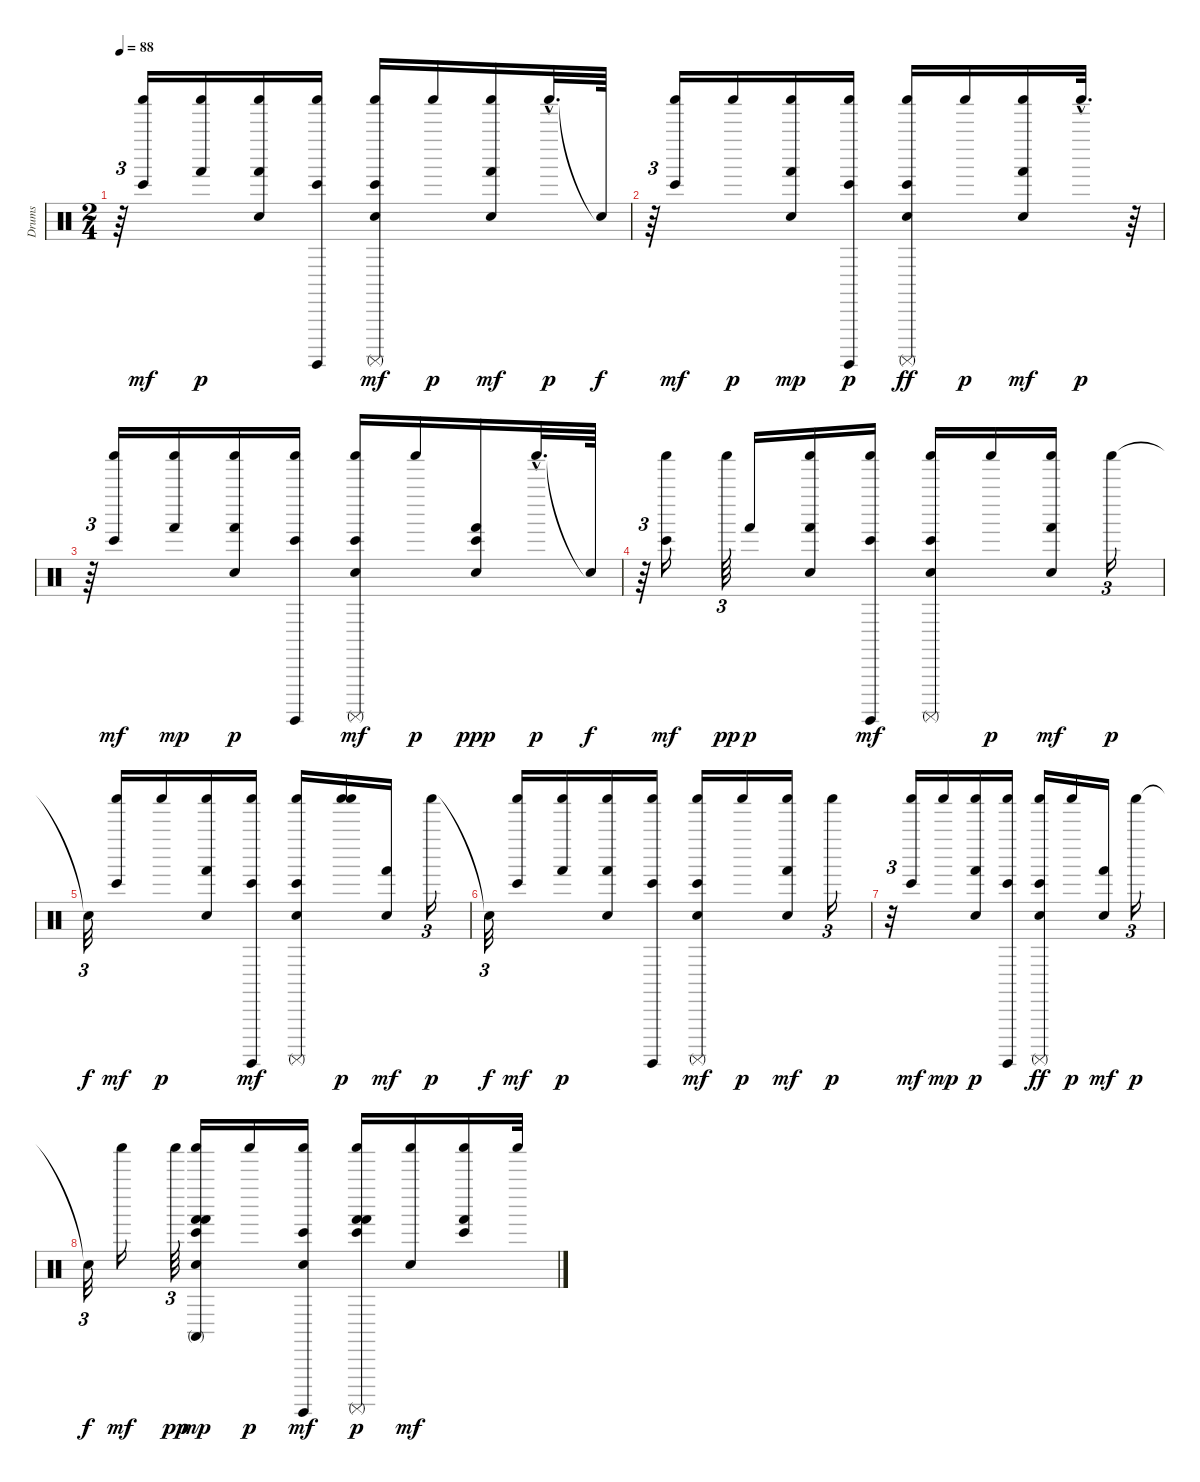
\track ("Drums" "Drums") {instrument percussion}
\staff {score}
\articulation defaults
\ts (2 4)
\tempo 88
\clef neutral
\ks c
r.64{tu (3 2) dy f} ("Shaker (hit)" "Bongo High (hit)").16{dy mf} ("Shaker (hit)" "Hand (hit)").16{dy p} ("Shaker (hit)" "Hand Clap (hit)" "Hand (hit)").16 ("Shaker (hit)" "Surdo (hit)" "Bongo High (hit)").16 ("Shaker (hit)" "Hand Clap (hit)" "Surdo (mute)" "Bongo High (hit)").16{dy mf} "Shaker (hit)".16{dy p} ("Shaker (hit)" "Hand Clap (hit)" "Hand (hit)").16{dy mf} "Shaker (hit)"{hac}.32{d dy p} "Snare (hit)"{t}.64{dy f} |
r.64{tu (3 2)} ("Shaker (hit)" "Bongo High (hit)").16{dy mf} "Shaker (hit)".16{dy p} ("Shaker (hit)" "Hand (hit)" "Hand Clap (hit)").16{dy mp} ("Bongo High (hit)" "Shaker (hit)" "Surdo (hit)").16{dy p} ("Shaker (hit)" "Bongo High (hit)" "Hand Clap (hit)" "Surdo (mute)").16{dy ff} "Shaker (hit)".16{dy p} ("Shaker (hit)" "Hand Clap (hit)" "Hand (hit)").16{dy mf} "Shaker (hit)"{hac}.32{d dy p} r.64 |
r.64{tu (3 2)} ("Bongo High (hit)" "Shaker (hit)").16{dy mf} ("Hand (hit)" "Shaker (hit)").16{dy mp} ("Hand (hit)" "Hand Clap (hit)" "Shaker (hit)").16{dy p} ("Shaker (hit)" "Surdo (hit)" "Bongo High (hit)").16 ("Shaker (hit)" "Hand Clap (hit)" "Bongo High (hit)" "Surdo (mute)").16{dy mf} "Shaker (hit)".16{dy p} ("Hand Clap (hit)" "Hand (hit)" "Bongo High (hit)").16{dy ppp} "Shaker (hit)"{hac}.32{d dy p} "Snare (hit)"{t}.64{dy f} |
r.64{tu (3 2)} ("Shaker (hit)" "Bongo High (hit)").16{dy mf} "Shaker (hit)".64{tu (3 2) dy pp} "Hand (hit)".16{dy p} ("Shaker (hit)" "Hand Clap (hit)" "Hand (hit)").16 ("Shaker (hit)" "Bongo High (hit)" "Surdo (hit)").16{dy mf} ("Hand Clap (hit)" "Bongo High (hit)" "Shaker (hit)" "Surdo (mute)").16 "Shaker (hit)".16{dy p} ("Shaker (hit)" "Hand Clap (hit)" "Hand (hit)").16{dy mf} "Shaker (hit)".16{tu (3 2) dy p} |
"Snare (hit)"{t}.32{tu (3 2) dy f} ("Shaker (hit)" "Bongo High (hit)").16{dy mf} "Shaker (hit)".16{dy p} ("Hand Clap (hit)" "Shaker (hit)" "Hand (hit)").16 ("Shaker (hit)" "Surdo (hit)" "Bongo High (hit)").16{dy mf} ("Hand Clap (hit)" "Shaker (hit)" "Bongo High (hit)" "Surdo (mute)").16 ("Shaker (hit)" "Shaker (hit)").16{dy p} ("Hand Clap (hit)" "Hand (hit)").16{dy mf} "Shaker (hit)".16{tu (3 2) dy p} |
"Snare (hit)"{t}.32{tu (3 2) dy f} ("Bongo High (hit)" "Shaker (hit)").16{dy mf} ("Shaker (hit)" "Hand (hit)").16{dy p} ("Shaker (hit)" "Hand (hit)" "Hand Clap (hit)").16 ("Surdo (hit)" "Bongo High (hit)" "Shaker (hit)").16 ("Hand Clap (hit)" "Shaker (hit)" "Surdo (mute)" "Bongo High (hit)").16{dy mf} "Shaker (hit)".16{dy p} ("Hand Clap (hit)" "Shaker (hit)" "Hand (hit)").16{dy mf} "Shaker (hit)".16{tu (3 2) dy p} |
r.32{tu (3 2)} ("Shaker (hit)" "Bongo High (hit)").16{dy mf} "Shaker (hit)".16{dy mp} ("Hand Clap (hit)" "Hand (hit)" "Shaker (hit)").16{dy p} ("Shaker (hit)" "Bongo High (hit)" "Surdo (hit)").16 ("Hand Clap (hit)" "Shaker (hit)" "Surdo (mute)" "Bongo High (hit)").16{dy ff} "Shaker (hit)".16{dy p} ("Hand Clap (hit)" "Hand (hit)").16{dy mf} "Shaker (hit)".16{tu (3 2) dy p} |
"Snare (hit)"{t}.32{tu (3 2) dy f} "Shaker (hit)".16{dy mf} "Shaker (hit)".64{tu (3 2) dy pp} ("Hand (hit)" "Bongo High (hit)" "Conga high (mute)" "Shaker (hit)" "Hand (hit)" "Hand Clap (hit)").16{dy mp} "Shaker (hit)".16{dy p} ("Bongo High (hit)" "Surdo (hit)" "Hand Clap (hit)" "Shaker (hit)").16{dy mf} ("Surdo (mute)" "Hand (hit)" "Bongo High (hit)" "Hand (hit)" "Shaker (hit)").16{dy p} ("Shaker (hit)" "Hand Clap (hit)").16{dy mf} ("Bongo High (hit)" "Shaker (hit)" "Hand (hit)").16 "Shaker (hit)".32
